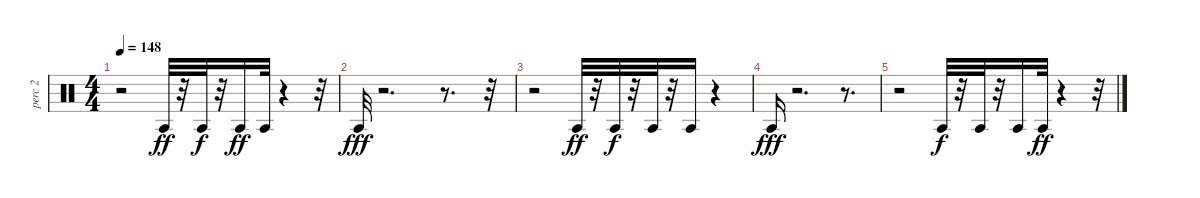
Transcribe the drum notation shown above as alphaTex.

\track ("perc 2              " "perc 2    ") {instrument percussion}
\staff {score}
\articulation defaults
\ts (4 4)
\tempo 148
\clef neutral
\ks c
r.2{dy fff} "Agogo tow (hit)".32{dy ff} r.32 "Agogo tow (hit)".32{dy f} r.32 "Agogo tow (hit)".16{dy ff} "Agogo tow (hit)".32 r.4 r.32 |
"Agogo tow (hit)".32{dy fff} r.2{d} r.8{d} r.32 |
r.2 "Agogo tow (hit)".32{dy ff} r.32 "Agogo tow (hit)".32{dy f} r.32 "Agogo tow (hit)".32 r.32 "Agogo tow (hit)".16 r.4 |
"Agogo tow (hit)".16{dy fff} r.2{d} r.8{d} |
r.2 "Agogo tow (hit)".32{dy f} r.32 "Agogo tow (hit)".32 r.32 "Agogo tow (hit)".16 "Agogo tow (hit)".32{dy ff} r.4 r.32
